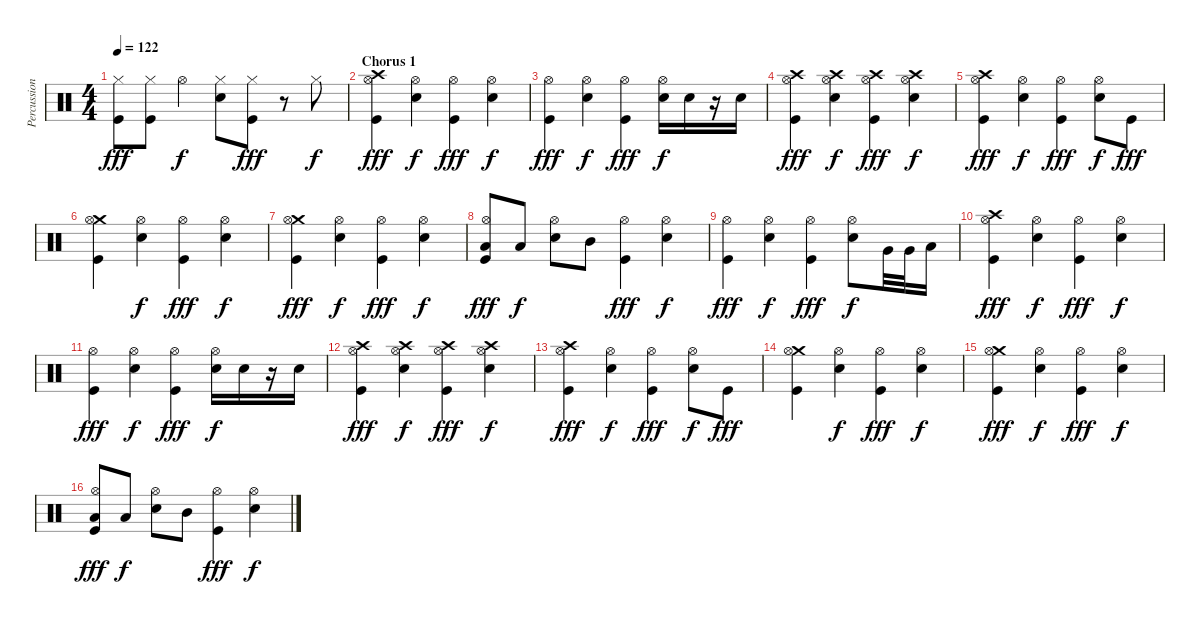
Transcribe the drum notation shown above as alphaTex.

\track ("Percussion" "Percussion") {instrument percussion}
\staff {score}
\articulation defaults
\ts (4 4)
\tempo 122
\clef neutral
\ks c
("Hi-Hat (closed)" "Kick (hit)").8{dy fff} ("Hi-Hat (closed)" "Kick (hit)").8 "Hi-Hat (open)".4{dy f} ("Hi-Hat (closed)" "Snare (hit) 2").8 ("Hi-Hat (closed)" "Kick (hit)").8{dy fff} r.8 "Hi-Hat (closed)".8{dy f} |
\section ("" "Chorus 1")
("Crash high (hit)" "Hi-Hat (open)" "Kick (hit)").4{dy fff volume 16} ("Hi-Hat (open)" "Electric Snare (hit)").4{dy f} ("Hi-Hat (open)" "Kick (hit)").4{dy fff} ("Hi-Hat (open)" "Electric Snare (hit)").4{dy f} |
("Hi-Hat (open)" "Kick (hit)").4{dy fff} ("Hi-Hat (open)" "Electric Snare (hit)").4{dy f} ("Hi-Hat (open)" "Kick (hit)").4{dy fff} ("Hi-Hat (open)" "Electric Snare (hit)").16{dy f} "Electric Snare (hit)".16 r.16 "Electric Snare (hit)".16 |
("Crash high (hit)" "Hi-Hat (open)" "Kick (hit)").4{dy fff} ("Crash high (hit)" "Hi-Hat (open)" "Electric Snare (hit)").4{dy f} ("Crash high (hit)" "Hi-Hat (open)" "Kick (hit)").4{dy fff} ("Crash high (hit)" "Hi-Hat (open)" "Electric Snare (hit)").4{dy f} |
("Crash high (hit)" "Hi-Hat (open)" "Kick (hit)").4{dy fff} ("Hi-Hat (open)" "Electric Snare (hit)").4{dy f} ("Hi-Hat (open)" "Kick (hit)").4{dy fff} ("Hi-Hat (open)" "Electric Snare (hit)").8{dy f} "Kick (hit)".8{dy fff} |
("Crash medium (hit)" "Hi-Hat (open)" "Kick (hit)").4 ("Hi-Hat (open)" "Electric Snare (hit)").4{dy f} ("Hi-Hat (open)" "Kick (hit)").4{dy fff} ("Hi-Hat (open)" "Electric Snare (hit)").4{dy f} |
("Crash medium (hit)" "Hi-Hat (open)" "Kick (hit)").4{dy fff} ("Hi-Hat (open)" "Electric Snare (hit)").4{dy f} ("Hi-Hat (open)" "Kick (hit)").4{dy fff} ("Hi-Hat (open)" "Electric Snare (hit)").4{dy f} |
("Hi-Hat (open)" "Low Tom (hit)" "Kick (hit)").8{dy fff} "Low Tom (hit)".8{dy f} ("Hi-Hat (open)" "Electric Snare (hit)").8 "Mid Tom (hit)".8 ("Hi-Hat (open)" "Kick (hit)").4{dy fff} ("Hi-Hat (open)" "Electric Snare (hit)").4{dy f} |
("Hi-Hat (open)" "Kick (hit)").4{dy fff} ("Hi-Hat (open)" "Electric Snare (hit)").4{dy f} ("Hi-Hat (open)" "Kick (hit)").4{dy fff} ("Hi-Hat (open)" "Electric Snare (hit)").8{dy f} "Very Low Tom (hit)".32 "Very Low Tom (hit)".32 "Low Floor Tom (hit)".16 |
("Crash high (hit)" "Hi-Hat (open)" "Kick (hit)").4{dy fff} ("Hi-Hat (open)" "Electric Snare (hit)").4{dy f} ("Hi-Hat (open)" "Kick (hit)").4{dy fff} ("Hi-Hat (open)" "Electric Snare (hit)").4{dy f} |
("Hi-Hat (open)" "Kick (hit)").4{dy fff} ("Hi-Hat (open)" "Electric Snare (hit)").4{dy f} ("Hi-Hat (open)" "Kick (hit)").4{dy fff} ("Hi-Hat (open)" "Electric Snare (hit)").16{dy f} "Electric Snare (hit)".16 r.16 "Electric Snare (hit)".16 |
("Crash high (hit)" "Hi-Hat (open)" "Kick (hit)").4{dy fff} ("Crash high (hit)" "Hi-Hat (open)" "Electric Snare (hit)").4{dy f} ("Crash high (hit)" "Hi-Hat (open)" "Kick (hit)").4{dy fff} ("Crash high (hit)" "Hi-Hat (open)" "Electric Snare (hit)").4{dy f} |
("Crash high (hit)" "Hi-Hat (open)" "Kick (hit)").4{dy fff} ("Hi-Hat (open)" "Electric Snare (hit)").4{dy f} ("Hi-Hat (open)" "Kick (hit)").4{dy fff} ("Hi-Hat (open)" "Electric Snare (hit)").8{dy f} "Kick (hit)".8{dy fff} |
("Crash medium (hit)" "Hi-Hat (open)" "Kick (hit)").4 ("Hi-Hat (open)" "Electric Snare (hit)").4{dy f} ("Hi-Hat (open)" "Kick (hit)").4{dy fff} ("Hi-Hat (open)" "Electric Snare (hit)").4{dy f} |
("Crash medium (hit)" "Hi-Hat (open)" "Kick (hit)").4{dy fff} ("Hi-Hat (open)" "Electric Snare (hit)").4{dy f} ("Hi-Hat (open)" "Kick (hit)").4{dy fff} ("Hi-Hat (open)" "Electric Snare (hit)").4{dy f} |
("Hi-Hat (open)" "Low Tom (hit)" "Kick (hit)").8{dy fff} "Low Tom (hit)".8{dy f} ("Hi-Hat (open)" "Electric Snare (hit)").8 "Mid Tom (hit)".8 ("Hi-Hat (open)" "Kick (hit)").4{dy fff} ("Hi-Hat (open)" "Electric Snare (hit)").4{dy f}
